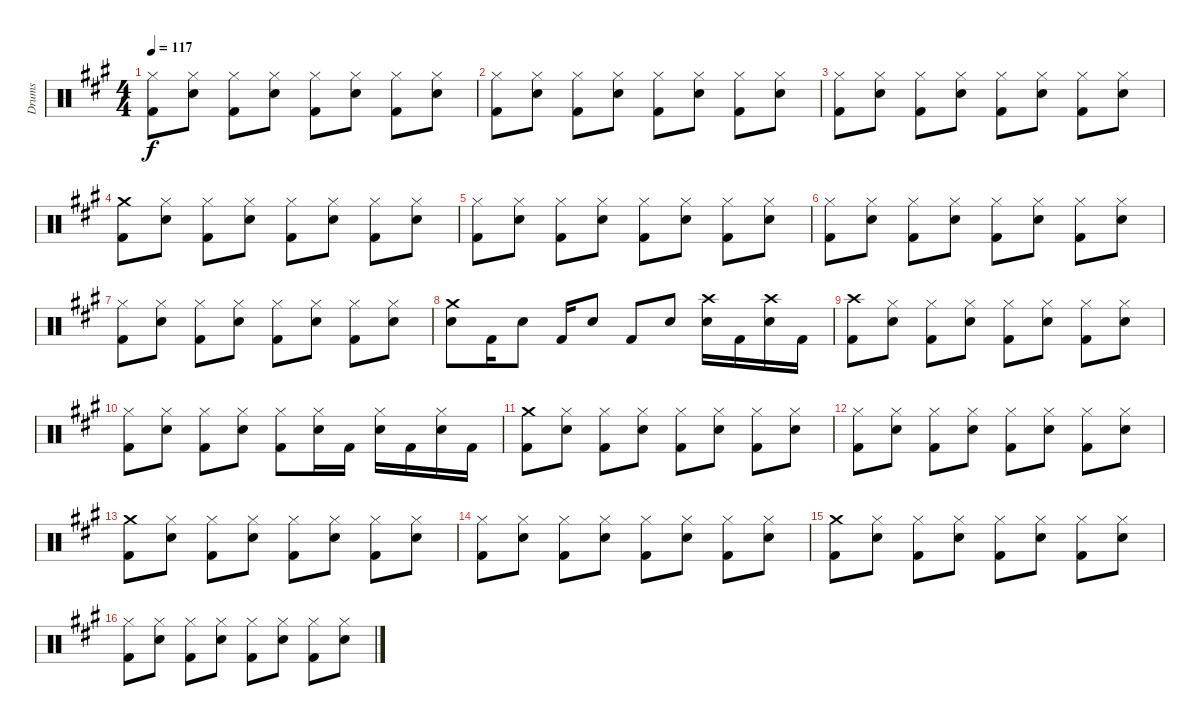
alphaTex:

\track ("Drums" "Drums") {instrument percussion}
\staff {score}
\articulation defaults
\ts (4 4)
\tempo 117
\clef neutral
\ks a
("Hi-Hat (closed)" "Kick (hit) 2").8{dy f} ("Hi-Hat (closed)" "Snare (hit) 2").8 ("Hi-Hat (closed)" "Kick (hit) 2").8 ("Hi-Hat (closed)" "Snare (hit) 2").8 ("Hi-Hat (closed)" "Kick (hit) 2").8 ("Hi-Hat (closed)" "Snare (hit) 2").8 ("Hi-Hat (closed)" "Kick (hit) 2").8 ("Hi-Hat (closed)" "Snare (hit) 2").8 |
("Hi-Hat (closed)" "Kick (hit) 2").8 ("Hi-Hat (closed)" "Snare (hit) 2").8 ("Hi-Hat (closed)" "Kick (hit) 2").8 ("Hi-Hat (closed)" "Snare (hit) 2").8 ("Hi-Hat (closed)" "Kick (hit) 2").8 ("Hi-Hat (closed)" "Snare (hit) 2").8 ("Hi-Hat (closed)" "Kick (hit) 2").8 ("Hi-Hat (closed)" "Snare (hit) 2").8 |
("Hi-Hat (closed)" "Kick (hit) 2").8 ("Hi-Hat (closed)" "Snare (hit) 2").8 ("Hi-Hat (closed)" "Kick (hit) 2").8 ("Hi-Hat (closed)" "Snare (hit) 2").8 ("Hi-Hat (closed)" "Kick (hit) 2").8 ("Hi-Hat (closed)" "Snare (hit) 2").8 ("Hi-Hat (closed)" "Kick (hit) 2").8 ("Hi-Hat (closed)" "Snare (hit) 2").8 |
("Crash medium (hit)" "Kick (hit) 2").8 ("Hi-Hat (closed)" "Snare (hit) 2").8 ("Hi-Hat (closed)" "Kick (hit) 2").8 ("Hi-Hat (closed)" "Snare (hit) 2").8 ("Hi-Hat (closed)" "Kick (hit) 2").8 ("Hi-Hat (closed)" "Snare (hit) 2").8 ("Hi-Hat (closed)" "Kick (hit) 2").8 ("Hi-Hat (closed)" "Snare (hit) 2").8 |
("Hi-Hat (closed)" "Kick (hit) 2").8 ("Hi-Hat (closed)" "Snare (hit) 2").8 ("Hi-Hat (closed)" "Kick (hit) 2").8 ("Hi-Hat (closed)" "Snare (hit) 2").8 ("Hi-Hat (closed)" "Kick (hit) 2").8 ("Hi-Hat (closed)" "Snare (hit) 2").8 ("Hi-Hat (closed)" "Kick (hit) 2").8 ("Hi-Hat (closed)" "Snare (hit) 2").8 |
("Hi-Hat (closed)" "Kick (hit) 2").8 ("Hi-Hat (closed)" "Snare (hit) 2").8 ("Hi-Hat (closed)" "Kick (hit) 2").8 ("Hi-Hat (closed)" "Snare (hit) 2").8 ("Hi-Hat (closed)" "Kick (hit) 2").8 ("Hi-Hat (closed)" "Snare (hit) 2").8 ("Hi-Hat (closed)" "Kick (hit) 2").8 ("Hi-Hat (closed)" "Snare (hit) 2").8 |
("Hi-Hat (closed)" "Kick (hit) 2").8 ("Hi-Hat (closed)" "Snare (hit) 2").8 ("Hi-Hat (closed)" "Kick (hit) 2").8 ("Hi-Hat (closed)" "Snare (hit) 2").8 ("Hi-Hat (closed)" "Kick (hit) 2").8 ("Hi-Hat (closed)" "Snare (hit) 2").8 ("Hi-Hat (closed)" "Kick (hit) 2").8 ("Hi-Hat (closed)" "Snare (hit) 2").8 |
("Crash medium (hit)" "Snare (hit) 2").8 "Kick (hit) 2".16 "Snare (hit) 2".8 "Kick (hit) 2".16 "Snare (hit) 2".8 "Kick (hit) 2".8 "Snare (hit) 2".8 ("Crash high (hit)" "Snare (hit) 2").16 "Kick (hit) 2".16 ("Crash high (hit)" "Snare (hit) 2").16 "Kick (hit) 2".16 |
("Crash high (hit)" "Kick (hit) 2").8 ("Hi-Hat (closed)" "Snare (hit) 2").8 ("Hi-Hat (closed)" "Kick (hit) 2").8 ("Hi-Hat (closed)" "Snare (hit) 2").8 ("Hi-Hat (closed)" "Kick (hit) 2").8 ("Hi-Hat (closed)" "Snare (hit) 2").8 ("Hi-Hat (closed)" "Kick (hit) 2").8 ("Hi-Hat (closed)" "Snare (hit) 2").8 |
("Hi-Hat (closed)" "Kick (hit) 2").8 ("Hi-Hat (closed)" "Snare (hit) 2").8 ("Hi-Hat (closed)" "Kick (hit) 2").8 ("Hi-Hat (closed)" "Snare (hit) 2").8 ("Hi-Hat (closed)" "Kick (hit) 2").8 ("Hi-Hat (closed)" "Snare (hit) 2").16 "Kick (hit) 2".16 ("Hi-Hat (closed)" "Snare (hit) 2").16 "Kick (hit) 2".16 ("Hi-Hat (closed)" "Snare (hit) 2").16 "Kick (hit) 2".16 |
("Crash medium (hit)" "Kick (hit) 2").8 ("Hi-Hat (closed)" "Snare (hit) 2").8 ("Hi-Hat (closed)" "Kick (hit) 2").8 ("Hi-Hat (closed)" "Snare (hit) 2").8 ("Hi-Hat (closed)" "Kick (hit) 2").8 ("Hi-Hat (closed)" "Snare (hit) 2").8 ("Hi-Hat (closed)" "Kick (hit) 2").8 ("Hi-Hat (closed)" "Snare (hit) 2").8 |
("Hi-Hat (closed)" "Kick (hit) 2").8 ("Hi-Hat (closed)" "Snare (hit) 2").8 ("Hi-Hat (closed)" "Kick (hit) 2").8 ("Hi-Hat (closed)" "Snare (hit) 2").8 ("Hi-Hat (closed)" "Kick (hit) 2").8 ("Hi-Hat (closed)" "Snare (hit) 2").8 ("Hi-Hat (closed)" "Kick (hit) 2").8 ("Hi-Hat (closed)" "Snare (hit) 2").8 |
("Crash medium (hit)" "Kick (hit) 2").8 ("Hi-Hat (closed)" "Snare (hit) 2").8 ("Hi-Hat (closed)" "Kick (hit) 2").8 ("Hi-Hat (closed)" "Snare (hit) 2").8 ("Hi-Hat (closed)" "Kick (hit) 2").8 ("Hi-Hat (closed)" "Snare (hit) 2").8 ("Hi-Hat (closed)" "Kick (hit) 2").8 ("Hi-Hat (closed)" "Snare (hit) 2").8 |
("Hi-Hat (closed)" "Kick (hit) 2").8 ("Hi-Hat (closed)" "Snare (hit) 2").8 ("Hi-Hat (closed)" "Kick (hit) 2").8 ("Hi-Hat (closed)" "Snare (hit) 2").8 ("Hi-Hat (closed)" "Kick (hit) 2").8 ("Hi-Hat (closed)" "Snare (hit) 2").8 ("Hi-Hat (closed)" "Kick (hit) 2").8 ("Hi-Hat (closed)" "Snare (hit) 2").8 |
("Crash medium (hit)" "Kick (hit) 2").8 ("Hi-Hat (closed)" "Snare (hit) 2").8 ("Hi-Hat (closed)" "Kick (hit) 2").8 ("Hi-Hat (closed)" "Snare (hit) 2").8 ("Hi-Hat (closed)" "Kick (hit) 2").8 ("Hi-Hat (closed)" "Snare (hit) 2").8 ("Hi-Hat (closed)" "Kick (hit) 2").8 ("Hi-Hat (closed)" "Snare (hit) 2").8 |
("Hi-Hat (closed)" "Kick (hit) 2").8 ("Hi-Hat (closed)" "Snare (hit) 2").8 ("Hi-Hat (closed)" "Kick (hit) 2").8 ("Hi-Hat (closed)" "Snare (hit) 2").8 ("Hi-Hat (closed)" "Kick (hit) 2").8 ("Hi-Hat (closed)" "Snare (hit) 2").8 ("Hi-Hat (closed)" "Kick (hit) 2").8 ("Hi-Hat (closed)" "Snare (hit) 2").8
